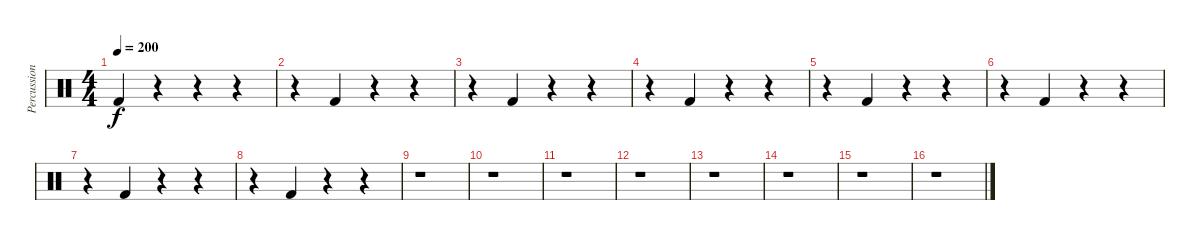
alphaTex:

\track ("Percussion" "Percussion") {instrument percussion}
\staff {score}
\articulation defaults
\ts (4 4)
\tempo 200
\clef neutral
\ks c "Kick (hit) 2".4{dy f}
r.4 r.4 r.4 |
r.4 "Kick (hit) 2".4 r.4 r.4 |
r.4 "Kick (hit) 2".4 r.4 r.4 |
r.4 "Kick (hit) 2".4 r.4 r.4 |
r.4 "Kick (hit) 2".4 r.4 r.4 |
r.4 "Kick (hit) 2".4 r.4 r.4 |
r.4 "Kick (hit) 2".4 r.4 r.4 |
r.4 "Kick (hit) 2".4 r.4 r.4 |
r.1 |
r.1 |
r.1 |
r.1 |
r.1 |
r.1 |
r.1 |
r.1
